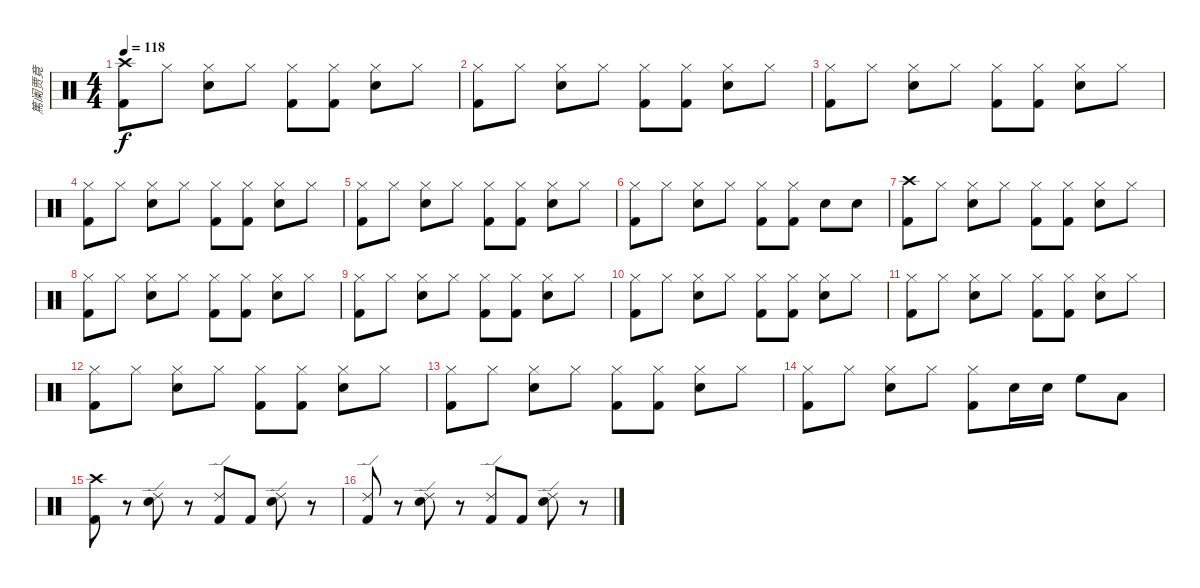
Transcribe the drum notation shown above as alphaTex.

\track ("篤阑贾竟" "篤阑贾竟") {instrument percussion}
\staff {score}
\articulation defaults
\ts (4 4)
\tempo 118
\clef neutral
\ks c
("Crash high (hit)" "Kick (hit) 2").8{dy f} "Hi-Hat (closed)".8 ("Hi-Hat (closed)" "Snare (hit) 2").8 "Hi-Hat (closed)".8 ("Hi-Hat (closed)" "Kick (hit) 2").8 ("Hi-Hat (closed)" "Kick (hit) 2").8 ("Hi-Hat (closed)" "Snare (hit) 2").8 "Hi-Hat (closed)".8 |
("Hi-Hat (closed)" "Kick (hit) 2").8 "Hi-Hat (closed)".8 ("Hi-Hat (closed)" "Snare (hit) 2").8 "Hi-Hat (closed)".8 ("Hi-Hat (closed)" "Kick (hit) 2").8 ("Hi-Hat (closed)" "Kick (hit) 2").8 ("Hi-Hat (closed)" "Snare (hit) 2").8 "Hi-Hat (closed)".8 |
("Hi-Hat (closed)" "Kick (hit) 2").8 "Hi-Hat (closed)".8 ("Hi-Hat (closed)" "Snare (hit) 2").8 "Hi-Hat (closed)".8 ("Hi-Hat (closed)" "Kick (hit) 2").8 ("Hi-Hat (closed)" "Kick (hit) 2").8 ("Hi-Hat (closed)" "Snare (hit) 2").8 "Hi-Hat (closed)".8 |
("Hi-Hat (closed)" "Kick (hit) 2").8 "Hi-Hat (closed)".8 ("Hi-Hat (closed)" "Snare (hit) 2").8 "Hi-Hat (closed)".8 ("Hi-Hat (closed)" "Kick (hit) 2").8 ("Hi-Hat (closed)" "Kick (hit) 2").8 ("Hi-Hat (closed)" "Snare (hit) 2").8 "Hi-Hat (closed)".8 |
("Hi-Hat (closed)" "Kick (hit) 2").8 "Hi-Hat (closed)".8 ("Hi-Hat (closed)" "Snare (hit) 2").8 "Hi-Hat (closed)".8 ("Hi-Hat (closed)" "Kick (hit) 2").8 ("Hi-Hat (closed)" "Kick (hit) 2").8 ("Hi-Hat (closed)" "Snare (hit) 2").8 "Hi-Hat (closed)".8 |
("Hi-Hat (closed)" "Kick (hit) 2").8 "Hi-Hat (closed)".8 ("Hi-Hat (closed)" "Snare (hit) 2").8 "Hi-Hat (closed)".8 ("Hi-Hat (closed)" "Kick (hit) 2").8 ("Hi-Hat (closed)" "Kick (hit) 2").8 "Snare (hit) 2".8 "Snare (hit) 2".8 |
("Crash high (hit)" "Kick (hit) 2").8 "Hi-Hat (closed)".8 ("Hi-Hat (closed)" "Snare (hit) 2").8 "Hi-Hat (closed)".8 ("Hi-Hat (closed)" "Kick (hit) 2").8 ("Hi-Hat (closed)" "Kick (hit) 2").8 ("Hi-Hat (closed)" "Snare (hit) 2").8 "Hi-Hat (closed)".8 |
("Hi-Hat (closed)" "Kick (hit) 2").8 "Hi-Hat (closed)".8 ("Hi-Hat (closed)" "Snare (hit) 2").8 "Hi-Hat (closed)".8 ("Hi-Hat (closed)" "Kick (hit) 2").8 ("Hi-Hat (closed)" "Kick (hit) 2").8 ("Hi-Hat (closed)" "Snare (hit) 2").8 "Hi-Hat (closed)".8 |
("Hi-Hat (closed)" "Kick (hit) 2").8 "Hi-Hat (closed)".8 ("Hi-Hat (closed)" "Snare (hit) 2").8 "Hi-Hat (closed)".8 ("Hi-Hat (closed)" "Kick (hit) 2").8 ("Hi-Hat (closed)" "Kick (hit) 2").8 ("Hi-Hat (closed)" "Snare (hit) 2").8 "Hi-Hat (closed)".8 |
("Hi-Hat (closed)" "Kick (hit) 2").8 "Hi-Hat (closed)".8 ("Hi-Hat (closed)" "Snare (hit) 2").8 "Hi-Hat (closed)".8 ("Hi-Hat (closed)" "Kick (hit) 2").8 ("Hi-Hat (closed)" "Kick (hit) 2").8 ("Hi-Hat (closed)" "Snare (hit) 2").8 "Hi-Hat (closed)".8 |
("Hi-Hat (closed)" "Kick (hit) 2").8 "Hi-Hat (closed)".8 ("Hi-Hat (closed)" "Snare (hit) 2").8 "Hi-Hat (closed)".8 ("Hi-Hat (closed)" "Kick (hit) 2").8 ("Hi-Hat (closed)" "Kick (hit) 2").8 ("Hi-Hat (closed)" "Snare (hit) 2").8 "Hi-Hat (closed)".8 |
("Hi-Hat (closed)" "Kick (hit) 2").8 "Hi-Hat (closed)".8 ("Hi-Hat (closed)" "Snare (hit) 2").8 "Hi-Hat (closed)".8 ("Hi-Hat (closed)" "Kick (hit) 2").8 ("Hi-Hat (closed)" "Kick (hit) 2").8 ("Hi-Hat (closed)" "Snare (hit) 2").8 "Hi-Hat (closed)".8 |
("Hi-Hat (closed)" "Kick (hit) 2").8 "Hi-Hat (closed)".8 ("Hi-Hat (closed)" "Snare (hit) 2").8 "Hi-Hat (closed)".8 ("Hi-Hat (closed)" "Kick (hit) 2").8 ("Hi-Hat (closed)" "Kick (hit) 2").8 ("Hi-Hat (closed)" "Snare (hit) 2").8 "Hi-Hat (closed)".8 |
("Hi-Hat (closed)" "Kick (hit) 2").8 "Hi-Hat (closed)".8 ("Hi-Hat (closed)" "Snare (hit) 2").8 "Hi-Hat (closed)".8 ("Hi-Hat (closed)" "Kick (hit) 2").8 "Snare (hit) 2".16 "Snare (hit) 2".16 "High Floor Tom (hit)".8 "Low Tom (hit)".8 |
("Crash high (hit)" "Kick (hit) 2").8 r.8 ("Ride (edge) 2" "Snare (hit) 2").8 r.8 ("Ride (edge) 2" "Kick (hit) 2").8 "Kick (hit) 2".8 ("Ride (edge) 2" "Snare (hit) 2").8 r.8 |
("Ride (edge) 2" "Kick (hit) 2").8 r.8 ("Ride (edge) 2" "Snare (hit) 2").8 r.8 ("Ride (edge) 2" "Kick (hit) 2").8 "Kick (hit) 2".8 ("Ride (edge) 2" "Snare (hit) 2").8 r.8
